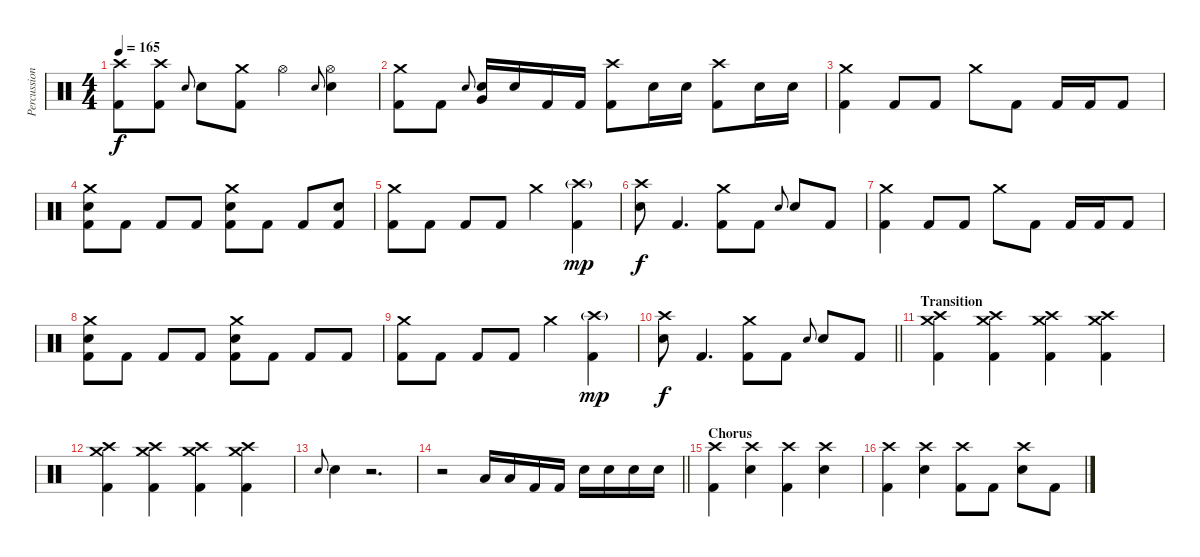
\track ("Percussion" "Percussion") {instrument percussion}
\staff {score}
\articulation defaults
\ts (4 4)
\tempo 165
\clef neutral
\ks c
("Crash high (hit)" "Kick (hit) 2").8{dy f} ("Crash high (hit)" "Kick (hit) 2").8 "Snare (hit) 2".8{gr onbeat} "Snare (hit) 2".8 ("Crash medium (hit)" "Kick (hit) 2").8 "Hi-Hat (open)".4 "Snare (hit) 2".8{gr onbeat} ("Hi-Hat (open)" "Snare (hit) 2").4 |
("Crash medium (hit)" "Kick (hit) 2").8 "Kick (hit) 2".8 "Snare (hit) 2".8{gr onbeat} ("Very Low Tom (hit)" "Snare (hit) 2").16 "Snare (hit) 2".16 "Kick (hit) 2".16 "Kick (hit) 2".16 ("Crash high (hit)" "Kick (hit) 2").8 "Snare (hit) 2".16 "Snare (hit) 2".16 ("Crash high (hit)" "Kick (hit) 2").8 "Snare (hit) 2".16 "Snare (hit) 2".16 |
("Crash medium (hit)" "Kick (hit) 2").4 "Kick (hit) 2".8 "Kick (hit) 2".8 "Crash medium (hit)".8 "Kick (hit) 2".8 "Kick (hit) 2".16 "Kick (hit) 2".16 "Kick (hit) 2".8 |
("Crash medium (hit)" "Snare (hit) 2" "Kick (hit) 2").8 "Kick (hit) 2".8 "Kick (hit) 2".8 "Kick (hit) 2".8 ("Crash medium (hit)" "Snare (hit) 2" "Kick (hit) 2").8 "Kick (hit) 2".8 "Kick (hit) 2".8 ("Snare (hit) 2" "Kick (hit) 2").8 |
("Crash medium (hit)" "Kick (hit) 2").8 "Kick (hit) 2".8 "Kick (hit) 2".8 "Kick (hit) 2".8 "Crash medium (hit)".4 ("Crash high (hit)"{g} "Kick (hit) 2").4{dy mp} |
("Crash high (hit)" "Snare (hit) 2").8{dy f} "Kick (hit) 2".4{d} ("Crash medium (hit)" "Kick (hit) 2").8 "Kick (hit) 2".8 "Snare (hit) 2".8{gr onbeat} "Snare (hit) 2".8 "Kick (hit) 2".8 |
("Crash medium (hit)" "Kick (hit) 2").4 "Kick (hit) 2".8 "Kick (hit) 2".8 "Crash medium (hit)".8 "Kick (hit) 2".8 "Kick (hit) 2".16 "Kick (hit) 2".16 "Kick (hit) 2".8 |
("Crash medium (hit)" "Snare (hit) 2" "Kick (hit) 2").8 "Kick (hit) 2".8 "Kick (hit) 2".8 "Kick (hit) 2".8 ("Crash medium (hit)" "Snare (hit) 2" "Kick (hit) 2").8 "Kick (hit) 2".8 "Kick (hit) 2".8 "Kick (hit) 2".8 |
("Crash medium (hit)" "Kick (hit) 2").8 "Kick (hit) 2".8 "Kick (hit) 2".8 "Kick (hit) 2".8 "Crash medium (hit)".4 ("Crash high (hit)"{g} "Kick (hit) 2").4{dy mp} |
\barLineRight lightlight
("Crash high (hit)" "Snare (hit) 2").8{dy f} "Kick (hit) 2".4{d} ("Crash medium (hit)" "Kick (hit) 2").8 "Kick (hit) 2".8 "Snare (hit) 2".8{gr onbeat} "Snare (hit) 2".8 "Kick (hit) 2".8 |
\section ("" "Transition")
("Crash medium (hit)" "Crash high (hit)" "Kick (hit) 2").4 ("Crash medium (hit)" "Crash high (hit)" "Kick (hit) 2").4 ("Crash medium (hit)" "Crash high (hit)" "Kick (hit) 2").4 ("Crash medium (hit)" "Crash high (hit)" "Kick (hit) 2").4 |
("Crash medium (hit)" "Crash high (hit)" "Kick (hit) 2").4 ("Crash medium (hit)" "Crash high (hit)" "Kick (hit) 2").4 ("Crash medium (hit)" "Crash high (hit)" "Kick (hit) 2").4 ("Crash medium (hit)" "Crash high (hit)" "Kick (hit) 2").4 |
"Snare (hit) 2".8{gr onbeat} "Snare (hit) 2".4 r.2{d} |
\barLineRight lightlight
r.2 "Low Tom (hit)".16 "Low Tom (hit)".16 "Kick (hit) 2".16 "Kick (hit) 2".16 "Snare (hit) 2".16 "Snare (hit) 2".16 "Snare (hit) 2".16 "Snare (hit) 2".16 |
\section ("" "Chorus")
("Crash high (hit)" "Kick (hit) 2").4 ("Crash high (hit)" "Snare (hit) 2").4 ("Crash high (hit)" "Kick (hit) 2").4 ("Crash high (hit)" "Snare (hit) 2").4 |
("Crash high (hit)" "Kick (hit) 2").4 ("Crash high (hit)" "Snare (hit) 2").4 ("Crash high (hit)" "Kick (hit) 2").8 "Kick (hit) 2".8 ("Crash high (hit)" "Snare (hit) 2").8 "Kick (hit) 2".8
